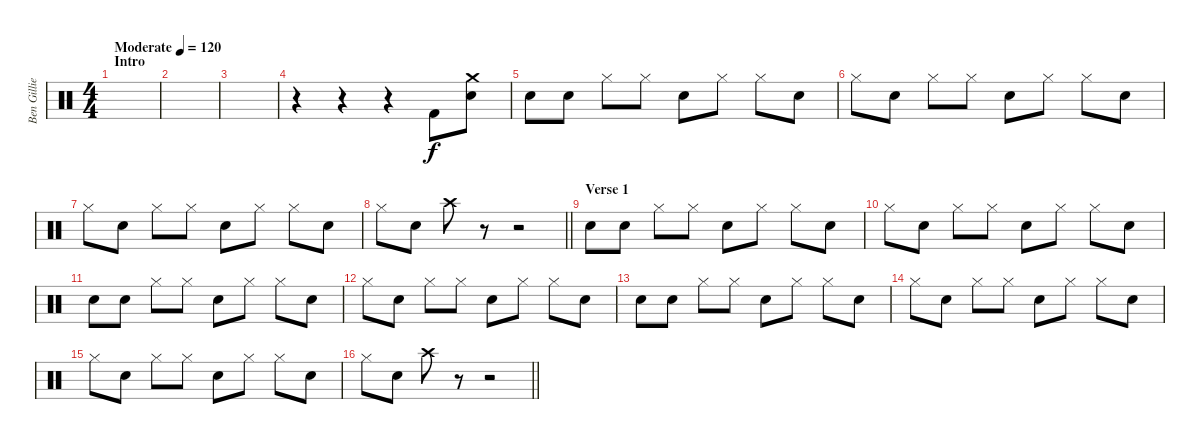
\track ("Ben Gillies(drums)" "Ben Gillie") {instrument percussion}
\staff {score}
\articulation defaults
\ts (4 4)
\section ("" "Intro")
\tempo (120 "Moderate")
\tempo 105
\tempo (120 "Moderate")
\clef neutral
\ks c
|
|
|
r.4 r.4 r.4 "Kick (hit) 2".8 ("Crash medium (hit)" "Electric Snare (hit)").8 |
"Electric Snare (hit)".8 "Electric Snare (hit)".8 "Hi-Hat (closed)".8 "Hi-Hat (closed)".8 "Electric Snare (hit)".8 "Hi-Hat (closed)".8 "Hi-Hat (closed)".8 "Electric Snare (hit)".8 |
"Hi-Hat (closed)".8 "Electric Snare (hit)".8 "Hi-Hat (closed)".8 "Hi-Hat (closed)".8 "Electric Snare (hit)".8 "Hi-Hat (closed)".8 "Hi-Hat (closed)".8 "Electric Snare (hit)".8 |
"Hi-Hat (closed)".8 "Electric Snare (hit)".8 "Hi-Hat (closed)".8 "Hi-Hat (closed)".8 "Electric Snare (hit)".8 "Hi-Hat (closed)".8 "Hi-Hat (closed)".8 "Electric Snare (hit)".8 |
\barLineRight lightlight "Hi-Hat (closed)".8 "Electric Snare (hit)".8 "Crash high (hit)".8
r.8 r.2 |
\section ("" "Verse 1")
"Electric Snare (hit)".8 "Electric Snare (hit)".8 "Hi-Hat (closed)".8 "Hi-Hat (closed)".8 "Electric Snare (hit)".8 "Hi-Hat (closed)".8 "Hi-Hat (closed)".8 "Electric Snare (hit)".8 |
"Hi-Hat (closed)".8 "Electric Snare (hit)".8 "Hi-Hat (closed)".8 "Hi-Hat (closed)".8 "Electric Snare (hit)".8 "Hi-Hat (closed)".8 "Hi-Hat (closed)".8 "Electric Snare (hit)".8 |
"Electric Snare (hit)".8 "Electric Snare (hit)".8 "Hi-Hat (closed)".8 "Hi-Hat (closed)".8 "Electric Snare (hit)".8 "Hi-Hat (closed)".8 "Hi-Hat (closed)".8 "Electric Snare (hit)".8 |
"Hi-Hat (closed)".8 "Electric Snare (hit)".8 "Hi-Hat (closed)".8 "Hi-Hat (closed)".8 "Electric Snare (hit)".8 "Hi-Hat (closed)".8 "Hi-Hat (closed)".8 "Electric Snare (hit)".8 |
"Electric Snare (hit)".8 "Electric Snare (hit)".8 "Hi-Hat (closed)".8 "Hi-Hat (closed)".8 "Electric Snare (hit)".8 "Hi-Hat (closed)".8 "Hi-Hat (closed)".8 "Electric Snare (hit)".8 |
"Hi-Hat (closed)".8 "Electric Snare (hit)".8 "Hi-Hat (closed)".8 "Hi-Hat (closed)".8 "Electric Snare (hit)".8 "Hi-Hat (closed)".8 "Hi-Hat (closed)".8 "Electric Snare (hit)".8 |
"Hi-Hat (closed)".8 "Electric Snare (hit)".8 "Hi-Hat (closed)".8 "Hi-Hat (closed)".8 "Electric Snare (hit)".8 "Hi-Hat (closed)".8 "Hi-Hat (closed)".8 "Electric Snare (hit)".8 |
\barLineRight lightlight "Hi-Hat (closed)".8 "Electric Snare (hit)".8 "Crash high (hit)".8
r.8 r.2
